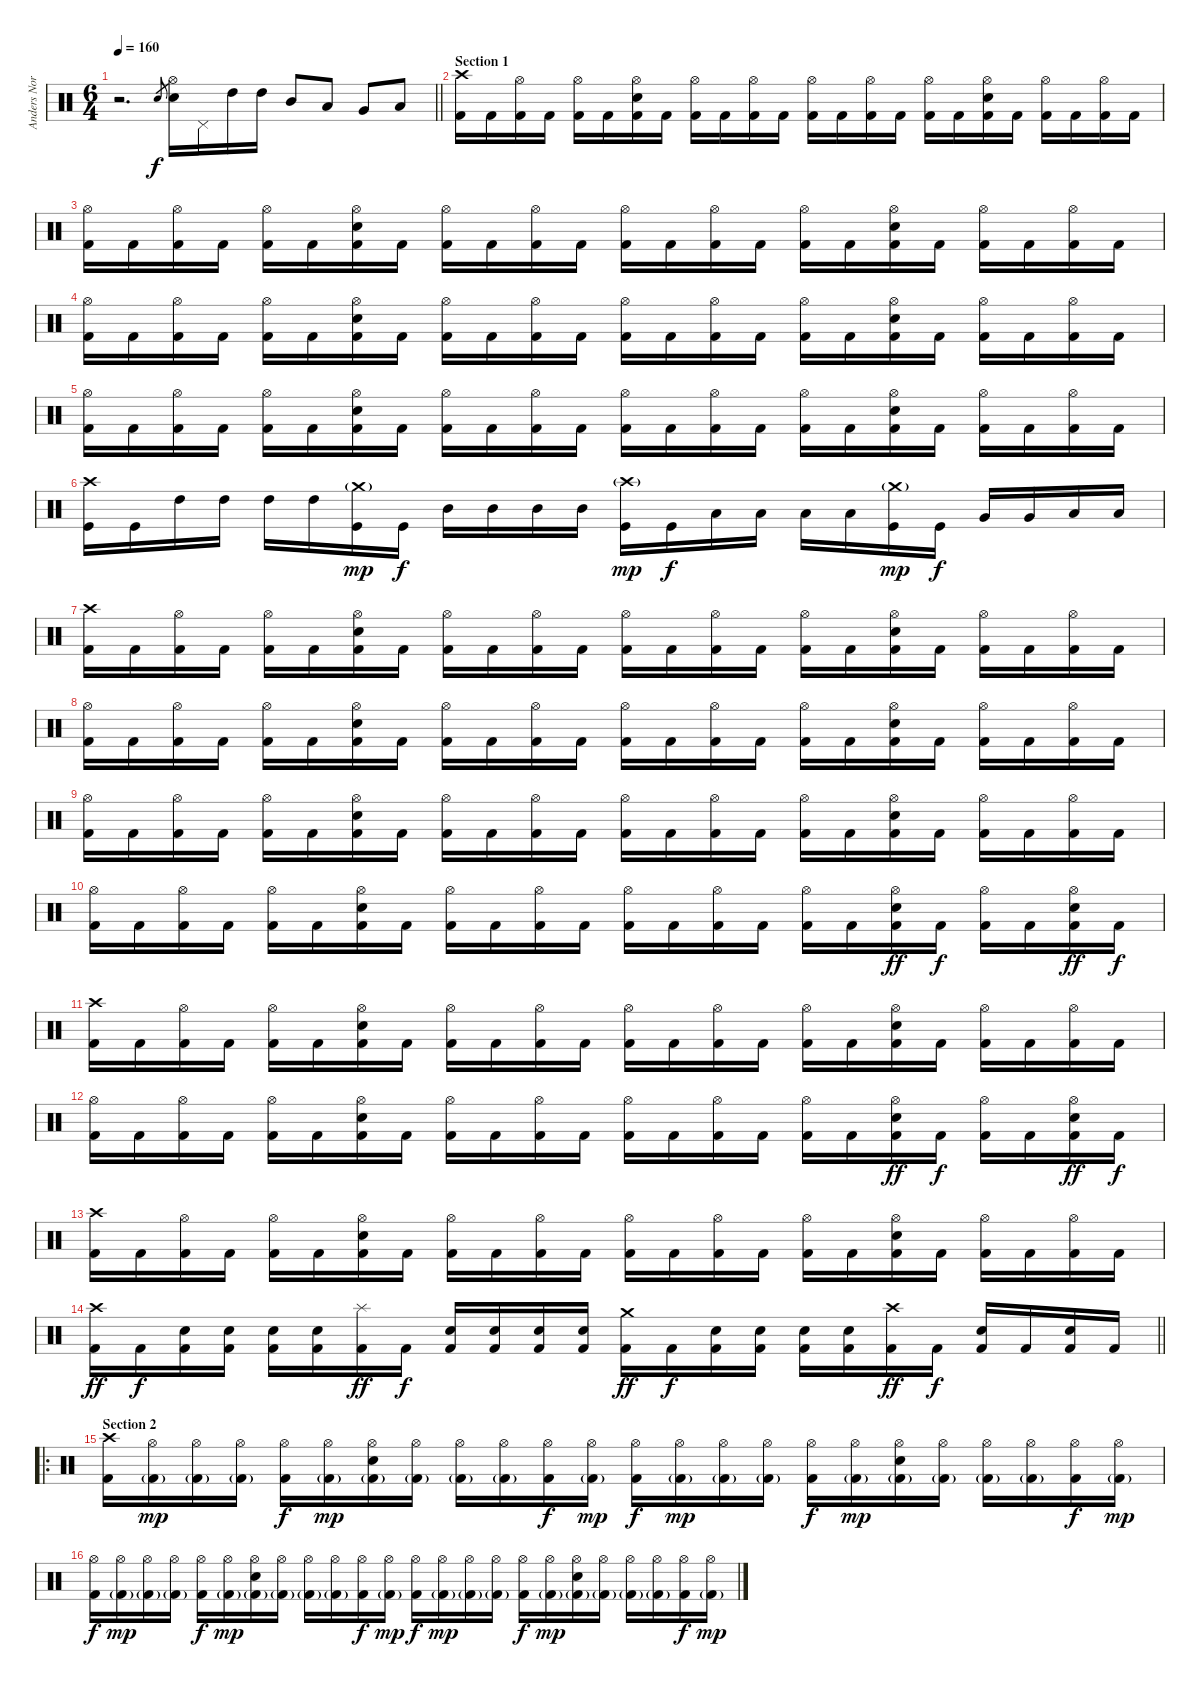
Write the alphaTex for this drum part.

\track ("Anders Nordin" "Anders Nor") {instrument percussion}
\staff {score}
\articulation defaults
\ts (6 4)
\tempo 160
\clef neutral
\barLineRight lightlight
\ks c
r.2{d dy f} "Snare (hit) 2".8{gr} ("Hi-Hat (open)" "Electric Snare (hit)").16 "Pedal Hi-Hat (hit)".16 "High Tom (hit)".16 "High Tom (hit)".16 "Mid Tom (hit)".8 "Low Tom (hit)".8 "Very Low Tom (hit)".8 "Low Floor Tom (hit)".8 |
\section ("" "Section 1")
("Crash high (hit)" "Kick (hit) 2").16 "Kick (hit) 2".16 ("Hi-Hat (open)" "Kick (hit) 2").16 "Kick (hit) 2".16 ("Hi-Hat (open)" "Kick (hit) 2").16 "Kick (hit) 2".16 ("Hi-Hat (open)" "Snare (hit) 2" "Kick (hit) 2").16 "Kick (hit) 2".16 ("Hi-Hat (open)" "Kick (hit) 2").16 "Kick (hit) 2".16 ("Hi-Hat (open)" "Kick (hit) 2").16 "Kick (hit) 2".16 ("Hi-Hat (open)" "Kick (hit) 2").16 "Kick (hit) 2".16 ("Hi-Hat (open)" "Kick (hit) 2").16 "Kick (hit) 2".16 ("Hi-Hat (open)" "Kick (hit) 2").16 "Kick (hit) 2".16 ("Hi-Hat (open)" "Snare (hit) 2" "Kick (hit) 2").16 "Kick (hit) 2".16 ("Hi-Hat (open)" "Kick (hit) 2").16 "Kick (hit) 2".16 ("Hi-Hat (open)" "Kick (hit) 2").16 "Kick (hit) 2".16 |
("Hi-Hat (open)" "Kick (hit) 2").16 "Kick (hit) 2".16 ("Hi-Hat (open)" "Kick (hit) 2").16 "Kick (hit) 2".16 ("Hi-Hat (open)" "Kick (hit) 2").16 "Kick (hit) 2".16 ("Hi-Hat (open)" "Snare (hit) 2" "Kick (hit) 2").16 "Kick (hit) 2".16 ("Hi-Hat (open)" "Kick (hit) 2").16 "Kick (hit) 2".16 ("Hi-Hat (open)" "Kick (hit) 2").16 "Kick (hit) 2".16 ("Hi-Hat (open)" "Kick (hit) 2").16 "Kick (hit) 2".16 ("Hi-Hat (open)" "Kick (hit) 2").16 "Kick (hit) 2".16 ("Hi-Hat (open)" "Kick (hit) 2").16 "Kick (hit) 2".16 ("Hi-Hat (open)" "Snare (hit) 2" "Kick (hit) 2").16 "Kick (hit) 2".16 ("Hi-Hat (open)" "Kick (hit) 2").16 "Kick (hit) 2".16 ("Hi-Hat (open)" "Kick (hit) 2").16 "Kick (hit) 2".16 |
("Hi-Hat (open)" "Kick (hit) 2").16 "Kick (hit) 2".16 ("Hi-Hat (open)" "Kick (hit) 2").16 "Kick (hit) 2".16 ("Hi-Hat (open)" "Kick (hit) 2").16 "Kick (hit) 2".16 ("Hi-Hat (open)" "Snare (hit) 2" "Kick (hit) 2").16 "Kick (hit) 2".16 ("Hi-Hat (open)" "Kick (hit) 2").16 "Kick (hit) 2".16 ("Hi-Hat (open)" "Kick (hit) 2").16 "Kick (hit) 2".16 ("Hi-Hat (open)" "Kick (hit) 2").16 "Kick (hit) 2".16 ("Hi-Hat (open)" "Kick (hit) 2").16 "Kick (hit) 2".16 ("Hi-Hat (open)" "Kick (hit) 2").16 "Kick (hit) 2".16 ("Hi-Hat (open)" "Snare (hit) 2" "Kick (hit) 2").16 "Kick (hit) 2".16 ("Hi-Hat (open)" "Kick (hit) 2").16 "Kick (hit) 2".16 ("Hi-Hat (open)" "Kick (hit) 2").16 "Kick (hit) 2".16 |
("Hi-Hat (open)" "Kick (hit) 2").16 "Kick (hit) 2".16 ("Hi-Hat (open)" "Kick (hit) 2").16 "Kick (hit) 2".16 ("Hi-Hat (open)" "Kick (hit) 2").16 "Kick (hit) 2".16 ("Hi-Hat (open)" "Snare (hit) 2" "Kick (hit) 2").16 "Kick (hit) 2".16 ("Hi-Hat (open)" "Kick (hit) 2").16 "Kick (hit) 2".16 ("Hi-Hat (open)" "Kick (hit) 2").16 "Kick (hit) 2".16 ("Hi-Hat (open)" "Kick (hit) 2").16 "Kick (hit) 2".16 ("Hi-Hat (open)" "Kick (hit) 2").16 "Kick (hit) 2".16 ("Hi-Hat (open)" "Kick (hit) 2").16 "Kick (hit) 2".16 ("Hi-Hat (open)" "Snare (hit) 2" "Kick (hit) 2").16 "Kick (hit) 2".16 ("Hi-Hat (open)" "Kick (hit) 2").16 "Kick (hit) 2".16 ("Hi-Hat (open)" "Kick (hit) 2").16 "Kick (hit) 2".16 |
("Crash high (hit)" "Kick (hit)").16 "Kick (hit)".16 "High Tom (hit)".16 "High Tom (hit)".16 "High Tom (hit)".16 "High Tom (hit)".16 ("Crash medium (hit)"{g} "Kick (hit)").16{dy mp} "Kick (hit)".16{dy f} "Mid Tom (hit)".16 "Mid Tom (hit)".16 "Mid Tom (hit)".16 "Mid Tom (hit)".16 ("Crash high (hit)"{g} "Kick (hit)").16{dy mp} "Kick (hit)".16{dy f} "Low Tom (hit)".16 "Low Tom (hit)".16 "Low Tom (hit)".16 "Low Tom (hit)".16 ("Crash medium (hit)"{g} "Kick (hit)").16{dy mp} "Kick (hit)".16{dy f} "Very Low Tom (hit)".16 "Very Low Tom (hit)".16 "Low Floor Tom (hit)".16 "Low Floor Tom (hit)".16 |
("Crash high (hit)" "Kick (hit) 2").16 "Kick (hit) 2".16 ("Hi-Hat (open)" "Kick (hit) 2").16 "Kick (hit) 2".16 ("Hi-Hat (open)" "Kick (hit) 2").16 "Kick (hit) 2".16 ("Hi-Hat (open)" "Snare (hit) 2" "Kick (hit) 2").16 "Kick (hit) 2".16 ("Hi-Hat (open)" "Kick (hit) 2").16 "Kick (hit) 2".16 ("Hi-Hat (open)" "Kick (hit) 2").16 "Kick (hit) 2".16 ("Hi-Hat (open)" "Kick (hit) 2").16 "Kick (hit) 2".16 ("Hi-Hat (open)" "Kick (hit) 2").16 "Kick (hit) 2".16 ("Hi-Hat (open)" "Kick (hit) 2").16 "Kick (hit) 2".16 ("Hi-Hat (open)" "Snare (hit) 2" "Kick (hit) 2").16 "Kick (hit) 2".16 ("Hi-Hat (open)" "Kick (hit) 2").16 "Kick (hit) 2".16 ("Hi-Hat (open)" "Kick (hit) 2").16 "Kick (hit) 2".16 |
("Hi-Hat (open)" "Kick (hit) 2").16 "Kick (hit) 2".16 ("Hi-Hat (open)" "Kick (hit) 2").16 "Kick (hit) 2".16 ("Hi-Hat (open)" "Kick (hit) 2").16 "Kick (hit) 2".16 ("Hi-Hat (open)" "Snare (hit) 2" "Kick (hit) 2").16 "Kick (hit) 2".16 ("Hi-Hat (open)" "Kick (hit) 2").16 "Kick (hit) 2".16 ("Hi-Hat (open)" "Kick (hit) 2").16 "Kick (hit) 2".16 ("Hi-Hat (open)" "Kick (hit) 2").16 "Kick (hit) 2".16 ("Hi-Hat (open)" "Kick (hit) 2").16 "Kick (hit) 2".16 ("Hi-Hat (open)" "Kick (hit) 2").16 "Kick (hit) 2".16 ("Hi-Hat (open)" "Snare (hit) 2" "Kick (hit) 2").16 "Kick (hit) 2".16 ("Hi-Hat (open)" "Kick (hit) 2").16 "Kick (hit) 2".16 ("Hi-Hat (open)" "Kick (hit) 2").16 "Kick (hit) 2".16 |
("Hi-Hat (open)" "Kick (hit) 2").16 "Kick (hit) 2".16 ("Hi-Hat (open)" "Kick (hit) 2").16 "Kick (hit) 2".16 ("Hi-Hat (open)" "Kick (hit) 2").16 "Kick (hit) 2".16 ("Hi-Hat (open)" "Snare (hit) 2" "Kick (hit) 2").16 "Kick (hit) 2".16 ("Hi-Hat (open)" "Kick (hit) 2").16 "Kick (hit) 2".16 ("Hi-Hat (open)" "Kick (hit) 2").16 "Kick (hit) 2".16 ("Hi-Hat (open)" "Kick (hit) 2").16 "Kick (hit) 2".16 ("Hi-Hat (open)" "Kick (hit) 2").16 "Kick (hit) 2".16 ("Hi-Hat (open)" "Kick (hit) 2").16 "Kick (hit) 2".16 ("Hi-Hat (open)" "Snare (hit) 2" "Kick (hit) 2").16 "Kick (hit) 2".16 ("Hi-Hat (open)" "Kick (hit) 2").16 "Kick (hit) 2".16 ("Hi-Hat (open)" "Kick (hit) 2").16 "Kick (hit) 2".16 |
("Hi-Hat (open)" "Kick (hit) 2").16 "Kick (hit) 2".16 ("Hi-Hat (open)" "Kick (hit) 2").16 "Kick (hit) 2".16 ("Hi-Hat (open)" "Kick (hit) 2").16 "Kick (hit) 2".16 ("Hi-Hat (open)" "Snare (hit) 2" "Kick (hit) 2").16 "Kick (hit) 2".16 ("Hi-Hat (open)" "Kick (hit) 2").16 "Kick (hit) 2".16 ("Hi-Hat (open)" "Kick (hit) 2").16 "Kick (hit) 2".16 ("Hi-Hat (open)" "Kick (hit) 2").16 "Kick (hit) 2".16 ("Hi-Hat (open)" "Kick (hit) 2").16 "Kick (hit) 2".16 ("Hi-Hat (open)" "Kick (hit) 2").16 "Kick (hit) 2".16 ("Hi-Hat (open)" "Snare (hit) 2" "Kick (hit) 2").16{dy ff} "Kick (hit) 2".16{dy f} ("Hi-Hat (open)" "Kick (hit) 2").16 "Kick (hit) 2".16 ("Hi-Hat (open)" "Snare (hit) 2" "Kick (hit) 2").16{dy ff} "Kick (hit) 2".16{dy f} |
("Crash high (hit)" "Kick (hit) 2").16 "Kick (hit) 2".16 ("Hi-Hat (open)" "Kick (hit) 2").16 "Kick (hit) 2".16 ("Hi-Hat (open)" "Kick (hit) 2").16 "Kick (hit) 2".16 ("Hi-Hat (open)" "Snare (hit) 2" "Kick (hit) 2").16 "Kick (hit) 2".16 ("Hi-Hat (open)" "Kick (hit) 2").16 "Kick (hit) 2".16 ("Hi-Hat (open)" "Kick (hit) 2").16 "Kick (hit) 2".16 ("Hi-Hat (open)" "Kick (hit) 2").16 "Kick (hit) 2".16 ("Hi-Hat (open)" "Kick (hit) 2").16 "Kick (hit) 2".16 ("Hi-Hat (open)" "Kick (hit) 2").16 "Kick (hit) 2".16 ("Hi-Hat (open)" "Snare (hit) 2" "Kick (hit) 2").16 "Kick (hit) 2".16 ("Hi-Hat (open)" "Kick (hit) 2").16 "Kick (hit) 2".16 ("Hi-Hat (open)" "Kick (hit) 2").16 "Kick (hit) 2".16 |
("Hi-Hat (open)" "Kick (hit) 2").16 "Kick (hit) 2".16 ("Hi-Hat (open)" "Kick (hit) 2").16 "Kick (hit) 2".16 ("Hi-Hat (open)" "Kick (hit) 2").16 "Kick (hit) 2".16 ("Hi-Hat (open)" "Snare (hit) 2" "Kick (hit) 2").16 "Kick (hit) 2".16 ("Hi-Hat (open)" "Kick (hit) 2").16 "Kick (hit) 2".16 ("Hi-Hat (open)" "Kick (hit) 2").16 "Kick (hit) 2".16 ("Hi-Hat (open)" "Kick (hit) 2").16 "Kick (hit) 2".16 ("Hi-Hat (open)" "Kick (hit) 2").16 "Kick (hit) 2".16 ("Hi-Hat (open)" "Kick (hit) 2").16 "Kick (hit) 2".16 ("Hi-Hat (open)" "Snare (hit) 2" "Kick (hit) 2").16{dy ff} "Kick (hit) 2".16{dy f} ("Hi-Hat (open)" "Kick (hit) 2").16 "Kick (hit) 2".16 ("Hi-Hat (open)" "Snare (hit) 2" "Kick (hit) 2").16{dy ff} "Kick (hit) 2".16{dy f} |
("Crash high (hit)" "Kick (hit) 2").16 "Kick (hit) 2".16 ("Hi-Hat (open)" "Kick (hit) 2").16 "Kick (hit) 2".16 ("Hi-Hat (open)" "Kick (hit) 2").16 "Kick (hit) 2".16 ("Hi-Hat (open)" "Snare (hit) 2" "Kick (hit) 2").16 "Kick (hit) 2".16 ("Hi-Hat (open)" "Kick (hit) 2").16 "Kick (hit) 2".16 ("Hi-Hat (open)" "Kick (hit) 2").16 "Kick (hit) 2".16 ("Hi-Hat (open)" "Kick (hit) 2").16 "Kick (hit) 2".16 ("Hi-Hat (open)" "Kick (hit) 2").16 "Kick (hit) 2".16 ("Hi-Hat (open)" "Kick (hit) 2").16 "Kick (hit) 2".16 ("Hi-Hat (open)" "Snare (hit) 2" "Kick (hit) 2").16 "Kick (hit) 2".16 ("Hi-Hat (open)" "Kick (hit) 2").16 "Kick (hit) 2".16 ("Hi-Hat (open)" "Kick (hit) 2").16 "Kick (hit) 2".16 |
\barLineRight lightlight
("Crash high (hit)" "Kick (hit) 2").16{dy ff} "Kick (hit) 2".16{dy f} ("Snare (hit) 2" "Kick (hit) 2").16 ("Snare (hit) 2" "Kick (hit) 2").16 ("Snare (hit) 2" "Kick (hit) 2").16 ("Snare (hit) 2" "Kick (hit) 2").16 ("Splash (hit)" "Kick (hit) 2").16{dy ff} "Kick (hit) 2".16{dy f} ("Snare (hit) 2" "Kick (hit) 2").16 ("Snare (hit) 2" "Kick (hit) 2").16 ("Snare (hit) 2" "Kick (hit) 2").16 ("Snare (hit) 2" "Kick (hit) 2").16 ("Crash medium (hit)" "Kick (hit) 2").16{dy ff} "Kick (hit) 2".16{dy f} ("Snare (hit) 2" "Kick (hit) 2").16 ("Snare (hit) 2" "Kick (hit) 2").16 ("Snare (hit) 2" "Kick (hit) 2").16 ("Snare (hit) 2" "Kick (hit) 2").16 ("Crash high (hit)" "Kick (hit) 2").16{dy ff} "Kick (hit) 2".16{dy f} ("Snare (hit) 2" "Kick (hit) 2").16 "Kick (hit) 2".16 ("Snare (hit) 2" "Kick (hit) 2").16 "Kick (hit) 2".16 |
\ro
\section ("" "Section 2")
("Crash high (hit)" "Kick (hit) 2").16 ("Hi-Hat (open)" "Kick (hit) 2"{g}).16{dy mp} ("Hi-Hat (open)" "Kick (hit) 2"{g}).16 ("Hi-Hat (open)" "Kick (hit) 2"{g}).16 ("Hi-Hat (open)" "Kick (hit) 2").16{dy f} ("Hi-Hat (open)" "Kick (hit) 2"{g}).16{dy mp} ("Hi-Hat (open)" "Snare (hit) 2" "Kick (hit) 2"{g}).16 ("Hi-Hat (open)" "Kick (hit) 2"{g}).16 ("Hi-Hat (open)" "Kick (hit) 2"{g}).16 ("Hi-Hat (open)" "Kick (hit) 2"{g}).16 ("Hi-Hat (open)" "Kick (hit) 2").16{dy f} ("Hi-Hat (open)" "Kick (hit) 2"{g}).16{dy mp} ("Hi-Hat (open)" "Kick (hit) 2").16{dy f} ("Hi-Hat (open)" "Kick (hit) 2"{g}).16{dy mp} ("Hi-Hat (open)" "Kick (hit) 2"{g}).16 ("Hi-Hat (open)" "Kick (hit) 2"{g}).16 ("Hi-Hat (open)" "Kick (hit) 2").16{dy f} ("Hi-Hat (open)" "Kick (hit) 2"{g}).16{dy mp} ("Hi-Hat (open)" "Snare (hit) 2" "Kick (hit) 2"{g}).16 ("Hi-Hat (open)" "Kick (hit) 2"{g}).16 ("Hi-Hat (open)" "Kick (hit) 2"{g}).16 ("Hi-Hat (open)" "Kick (hit) 2"{g}).16 ("Hi-Hat (open)" "Kick (hit) 2").16{dy f} ("Hi-Hat (open)" "Kick (hit) 2"{g}).16{dy mp} |
("Hi-Hat (open)" "Kick (hit) 2").16{dy f} ("Hi-Hat (open)" "Kick (hit) 2"{g}).16{dy mp} ("Hi-Hat (open)" "Kick (hit) 2"{g}).16 ("Hi-Hat (open)" "Kick (hit) 2"{g}).16 ("Hi-Hat (open)" "Kick (hit) 2").16{dy f} ("Hi-Hat (open)" "Kick (hit) 2"{g}).16{dy mp} ("Hi-Hat (open)" "Snare (hit) 2" "Kick (hit) 2"{g}).16 ("Hi-Hat (open)" "Kick (hit) 2"{g}).16 ("Hi-Hat (open)" "Kick (hit) 2"{g}).16 ("Hi-Hat (open)" "Kick (hit) 2"{g}).16 ("Hi-Hat (open)" "Kick (hit) 2").16{dy f} ("Hi-Hat (open)" "Kick (hit) 2"{g}).16{dy mp} ("Hi-Hat (open)" "Kick (hit) 2").16{dy f} ("Hi-Hat (open)" "Kick (hit) 2"{g}).16{dy mp} ("Hi-Hat (open)" "Kick (hit) 2"{g}).16 ("Hi-Hat (open)" "Kick (hit) 2"{g}).16 ("Hi-Hat (open)" "Kick (hit) 2").16{dy f} ("Hi-Hat (open)" "Kick (hit) 2"{g}).16{dy mp} ("Hi-Hat (open)" "Snare (hit) 2" "Kick (hit) 2"{g}).16 ("Hi-Hat (open)" "Kick (hit) 2"{g}).16 ("Hi-Hat (open)" "Kick (hit) 2"{g}).16 ("Hi-Hat (open)" "Kick (hit) 2"{g}).16 ("Hi-Hat (open)" "Kick (hit) 2").16{dy f} ("Hi-Hat (open)" "Kick (hit) 2"{g}).16{dy mp}
